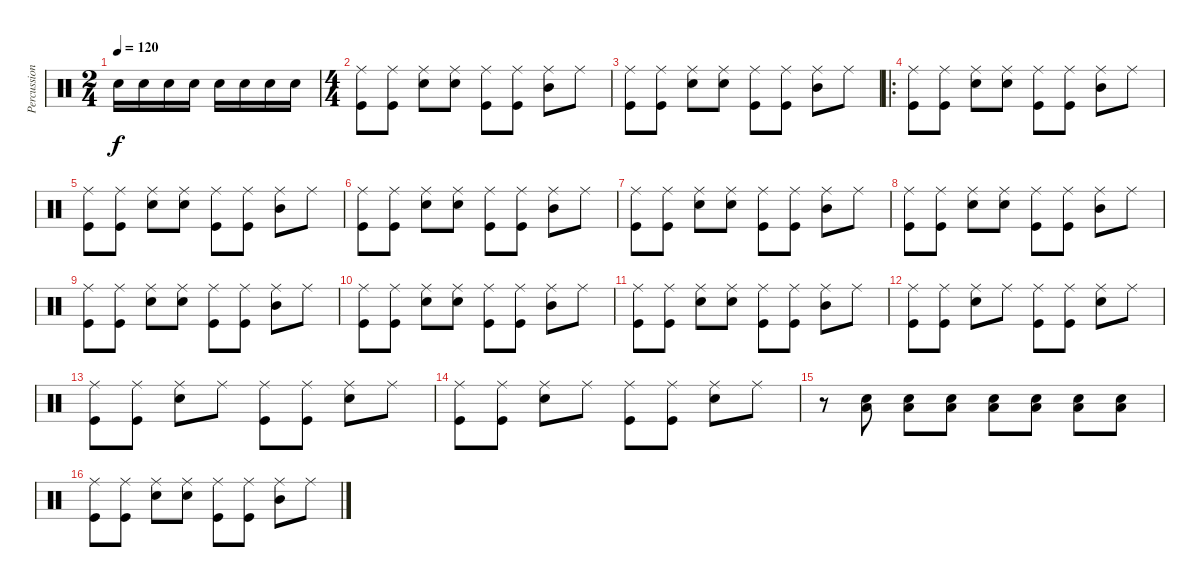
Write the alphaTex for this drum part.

\track ("Percussion" "Percussion") {instrument percussion}
\staff {score}
\articulation defaults
\ts (2 4)
\tempo 120
\clef neutral
\ks c "Electric Snare (hit)".16{dy f} "Electric Snare (hit)".16 "Electric Snare (hit)".16 "Electric Snare (hit)".16 "Electric Snare (hit)".16 "Electric Snare (hit)".16 "Electric Snare (hit)".16 "Electric Snare (hit)".16
|
\ts (4 4)
("Ride (middle)" "Kick (hit)").8 ("Ride (middle)" "Kick (hit)").8 ("Ride (middle)" "Electric Snare (hit)").8 ("Ride (middle)" "Electric Snare (hit)").8 ("Ride (middle)" "Kick (hit)").8 ("Ride (middle)" "Kick (hit)").8 ("Ride (middle)" "Mid Tom (hit)").8 "Ride (middle)".8 |
("Ride (middle)" "Kick (hit)").8 ("Ride (middle)" "Kick (hit)").8 ("Ride (middle)" "Electric Snare (hit)").8 ("Ride (middle)" "Electric Snare (hit)").8 ("Ride (middle)" "Kick (hit)").8 ("Ride (middle)" "Kick (hit)").8 ("Ride (middle)" "Mid Tom (hit)").8 "Ride (middle)".8 |
\ro
("Ride (middle)" "Kick (hit)").8 ("Ride (middle)" "Kick (hit)").8 ("Ride (middle)" "Electric Snare (hit)").8 ("Ride (middle)" "Electric Snare (hit)").8 ("Ride (middle)" "Kick (hit)").8 ("Ride (middle)" "Kick (hit)").8 ("Ride (middle)" "Mid Tom (hit)").8 "Ride (middle)".8 |
("Ride (middle)" "Kick (hit)").8 ("Ride (middle)" "Kick (hit)").8 ("Ride (middle)" "Electric Snare (hit)").8 ("Ride (middle)" "Electric Snare (hit)").8 ("Ride (middle)" "Kick (hit)").8 ("Ride (middle)" "Kick (hit)").8 ("Ride (middle)" "Mid Tom (hit)").8 "Ride (middle)".8 |
("Ride (middle)" "Kick (hit)").8 ("Ride (middle)" "Kick (hit)").8 ("Ride (middle)" "Electric Snare (hit)").8 ("Ride (middle)" "Electric Snare (hit)").8 ("Ride (middle)" "Kick (hit)").8 ("Ride (middle)" "Kick (hit)").8 ("Ride (middle)" "Mid Tom (hit)").8 "Ride (middle)".8 |
("Ride (middle)" "Kick (hit)").8 ("Ride (middle)" "Kick (hit)").8 ("Ride (middle)" "Electric Snare (hit)").8 ("Ride (middle)" "Electric Snare (hit)").8 ("Ride (middle)" "Kick (hit)").8 ("Ride (middle)" "Kick (hit)").8 ("Ride (middle)" "Mid Tom (hit)").8 "Ride (middle)".8 |
("Ride (middle)" "Kick (hit)").8 ("Ride (middle)" "Kick (hit)").8 ("Ride (middle)" "Electric Snare (hit)").8 ("Ride (middle)" "Electric Snare (hit)").8 ("Ride (middle)" "Kick (hit)").8 ("Ride (middle)" "Kick (hit)").8 ("Ride (middle)" "Mid Tom (hit)").8 "Ride (middle)".8 |
("Ride (middle)" "Kick (hit)").8 ("Ride (middle)" "Kick (hit)").8 ("Ride (middle)" "Electric Snare (hit)").8 ("Ride (middle)" "Electric Snare (hit)").8 ("Ride (middle)" "Kick (hit)").8 ("Ride (middle)" "Kick (hit)").8 ("Ride (middle)" "Mid Tom (hit)").8 "Ride (middle)".8 |
("Ride (middle)" "Kick (hit)").8 ("Ride (middle)" "Kick (hit)").8 ("Ride (middle)" "Electric Snare (hit)").8 ("Ride (middle)" "Electric Snare (hit)").8 ("Ride (middle)" "Kick (hit)").8 ("Ride (middle)" "Kick (hit)").8 ("Ride (middle)" "Mid Tom (hit)").8 "Ride (middle)".8 |
("Ride (middle)" "Kick (hit)").8 ("Ride (middle)" "Kick (hit)").8 ("Ride (middle)" "Electric Snare (hit)").8 ("Ride (middle)" "Electric Snare (hit)").8 ("Ride (middle)" "Kick (hit)").8 ("Ride (middle)" "Kick (hit)").8 ("Ride (middle)" "Mid Tom (hit)").8 "Ride (middle)".8 |
("Ride (middle)" "Kick (hit)").8 ("Ride (middle)" "Kick (hit)").8 ("Ride (middle)" "Electric Snare (hit)").8 "Ride (middle)".8 ("Ride (middle)" "Kick (hit)").8 ("Ride (middle)" "Kick (hit)").8 ("Ride (middle)" "Electric Snare (hit)").8 "Ride (middle)".8 |
("Ride (middle)" "Kick (hit)").8 ("Ride (middle)" "Kick (hit)").8 ("Ride (middle)" "Electric Snare (hit)").8 "Ride (middle)".8 ("Ride (middle)" "Kick (hit)").8 ("Ride (middle)" "Kick (hit)").8 ("Ride (middle)" "Electric Snare (hit)").8 "Ride (middle)".8 |
("Ride (middle)" "Kick (hit)").8 ("Ride (middle)" "Kick (hit)").8 ("Ride (middle)" "Electric Snare (hit)").8 "Ride (middle)".8 ("Ride (middle)" "Kick (hit)").8 ("Ride (middle)" "Kick (hit)").8 ("Ride (middle)" "Electric Snare (hit)").8 "Ride (middle)".8 |
r.8 ("Electric Snare (hit)" "Low Floor Tom (hit)").8 ("Electric Snare (hit)" "Low Floor Tom (hit)").8 ("Electric Snare (hit)" "Low Floor Tom (hit)").8 ("Electric Snare (hit)" "Low Floor Tom (hit)").8 ("Electric Snare (hit)" "Low Floor Tom (hit)").8 ("Electric Snare (hit)" "Low Floor Tom (hit)").8 ("Electric Snare (hit)" "Low Floor Tom (hit)").8 |
("Ride (middle)" "Kick (hit)").8 ("Ride (middle)" "Kick (hit)").8 ("Ride (middle)" "Electric Snare (hit)").8 ("Ride (middle)" "Electric Snare (hit)").8 ("Ride (middle)" "Kick (hit)").8 ("Ride (middle)" "Kick (hit)").8 ("Ride (middle)" "Mid Tom (hit)").8 "Ride (middle)".8
